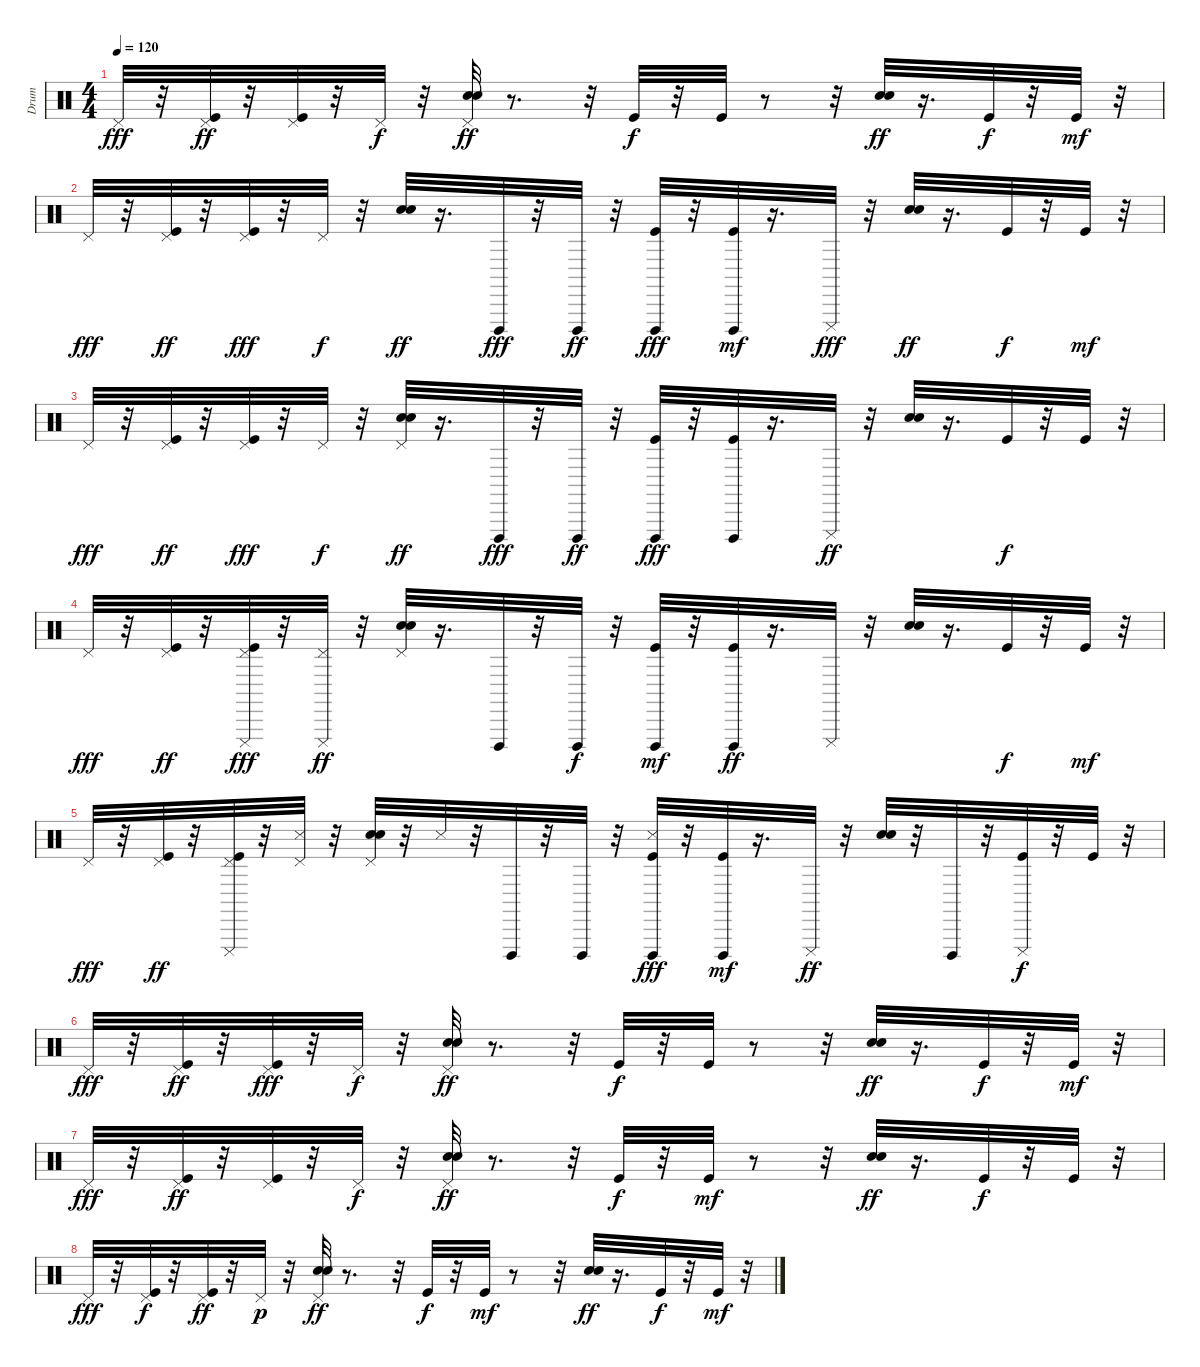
\track ("Drum" "Drum") {instrument percussion}
\staff {score}
\articulation defaults
\ts (4 4)
\tempo 120
\clef neutral
\ks c "Pedal Hi-Hat (hit)".32{dy fff}
r.32 ("Kick (hit)" "Pedal Hi-Hat (hit)").32{dy ff} r.32 ("Kick (hit)" "Pedal Hi-Hat (hit)").32 r.32 "Pedal Hi-Hat (hit)".32{dy f} r.32 ("Snare (hit) 2" "Electric Snare (hit)" "Pedal Hi-Hat (hit)").32{dy ff} r.8{d} r.32 "Kick (hit)".32{dy f} r.32 "Kick (hit)".32 r.8 r.32 ("Snare (hit) 2" "Electric Snare (hit)").32{dy ff} r.16{d} "Kick (hit)".32{dy f} r.32 "Kick (hit)".32{dy mf} r.32 |
"Pedal Hi-Hat (hit)".32{dy fff} r.32 ("Kick (hit)" "Pedal Hi-Hat (hit)").32{dy ff} r.32 ("Kick (hit)" "Pedal Hi-Hat (hit)").32{dy fff} r.32 "Pedal Hi-Hat (hit)".32{dy f} r.32 ("Snare (hit) 2" "Electric Snare (hit)").32{dy ff} r.16{d} "Cuica (open)".32{dy fff} r.32 "Cuica (open)".32{dy ff} r.32 ("Cuica (open)" "Kick (hit)").32{dy fff} r.32 ("Cuica (open)" "Kick (hit)").32{dy mf} r.16{d} "Cuica (mute)".32{dy fff} r.32 ("Snare (hit) 2" "Electric Snare (hit)").32{dy ff} r.16{d} "Kick (hit)".32{dy f} r.32 "Kick (hit)".32{dy mf} r.32 |
"Pedal Hi-Hat (hit)".32{dy fff} r.32 ("Kick (hit)" "Pedal Hi-Hat (hit)").32{dy ff} r.32 ("Kick (hit)" "Pedal Hi-Hat (hit)").32{dy fff} r.32 "Pedal Hi-Hat (hit)".32{dy f} r.32 ("Snare (hit) 2" "Electric Snare (hit)" "Pedal Hi-Hat (hit)").32{dy ff} r.16{d} "Cuica (open)".32{dy fff} r.32 "Cuica (open)".32{dy ff} r.32 ("Cuica (open)" "Kick (hit)").32{dy fff} r.32 ("Cuica (open)" "Kick (hit)").32 r.16{d} "Cuica (mute)".32{dy ff} r.32 ("Electric Snare (hit)" "Snare (hit) 2").32 r.16{d} "Kick (hit)".32{dy f} r.32 "Kick (hit)".32 r.32 |
"Pedal Hi-Hat (hit)".32{dy fff} r.32 ("Kick (hit)" "Pedal Hi-Hat (hit)").32{dy ff} r.32 ("Cuica (mute)" "Kick (hit)" "Pedal Hi-Hat (hit)").32{dy fff} r.32 ("Cuica (mute)" "Pedal Hi-Hat (hit)").32{dy ff} r.32 ("Snare (hit) 2" "Electric Snare (hit)" "Pedal Hi-Hat (hit)").32 r.16{d} "Cuica (open)".32 r.32 "Cuica (open)".32{dy f} r.32 ("Cuica (open)" "Kick (hit)").32{dy mf} r.32 ("Kick (hit)" "Cuica (open)").32{dy ff} r.16{d} "Cuica (mute)".32 r.32 ("Snare (hit) 2" "Electric Snare (hit)").32 r.16{d} "Kick (hit)".32{dy f} r.32 "Kick (hit)".32{dy mf} r.32 |
"Pedal Hi-Hat (hit)".32{dy fff} r.32 ("Kick (hit)" "Pedal Hi-Hat (hit)").32{dy ff} r.32 ("Cuica (mute)" "Kick (hit)" "Pedal Hi-Hat (hit)").32 r.32 ("Snare (side stick) 3" "Pedal Hi-Hat (hit)").32 r.32 ("Snare (hit) 2" "Electric Snare (hit)" "Pedal Hi-Hat (hit)").32 r.32 "Snare (side stick) 3".32 r.32 "Cuica (open)".32 r.32 "Cuica (open)".32 r.32 ("Cuica (open)" "Snare (side stick) 3" "Kick (hit)").32{dy fff} r.32 ("Cuica (open)" "Kick (hit)").32{dy mf} r.16{d} "Cuica (mute)".32{dy ff} r.32 ("Snare (hit) 2" "Electric Snare (hit)").32 r.32 "Cuica (open)".32 r.32 ("Cuica (mute)" "Kick (hit)").32{dy f} r.32 "Kick (hit)".32 r.32 |
"Pedal Hi-Hat (hit)".32{dy fff} r.32 ("Kick (hit)" "Pedal Hi-Hat (hit)").32{dy ff} r.32 ("Kick (hit)" "Pedal Hi-Hat (hit)").32{dy fff} r.32 "Pedal Hi-Hat (hit)".32{dy f} r.32 ("Snare (hit) 2" "Electric Snare (hit)" "Pedal Hi-Hat (hit)").32{dy ff} r.8{d} r.32 "Kick (hit)".32{dy f} r.32 "Kick (hit)".32 r.8 r.32 ("Snare (hit) 2" "Electric Snare (hit)").32{dy ff} r.16{d} "Kick (hit)".32{dy f} r.32 "Kick (hit)".32{dy mf} r.32 |
"Pedal Hi-Hat (hit)".32{dy fff} r.32 ("Kick (hit)" "Pedal Hi-Hat (hit)").32{dy ff} r.32 ("Kick (hit)" "Pedal Hi-Hat (hit)").32 r.32 "Pedal Hi-Hat (hit)".32{dy f} r.32 ("Snare (hit) 2" "Electric Snare (hit)" "Pedal Hi-Hat (hit)").32{dy ff} r.8{d} r.32 "Kick (hit)".32{dy f} r.32 "Kick (hit)".32{dy mf} r.8 r.32 ("Snare (hit) 2" "Electric Snare (hit)").32{dy ff} r.16{d} "Kick (hit)".32{dy f} r.32 "Kick (hit)".32 r.32 |
"Pedal Hi-Hat (hit)".32{dy fff} r.32 ("Kick (hit)" "Pedal Hi-Hat (hit)").32{dy f} r.32 ("Kick (hit)" "Pedal Hi-Hat (hit)").32{dy ff} r.32 "Pedal Hi-Hat (hit)".32{dy p} r.32 ("Electric Snare (hit)" "Pedal Hi-Hat (hit)" "Snare (hit) 2").32{dy ff} r.8{d} r.32 "Kick (hit)".32{dy f} r.32 "Kick (hit)".32{dy mf} r.8 r.32 ("Electric Snare (hit)" "Snare (hit) 2").32{dy ff} r.16{d} "Kick (hit)".32{dy f} r.32 "Kick (hit)".32{dy mf} r.32
